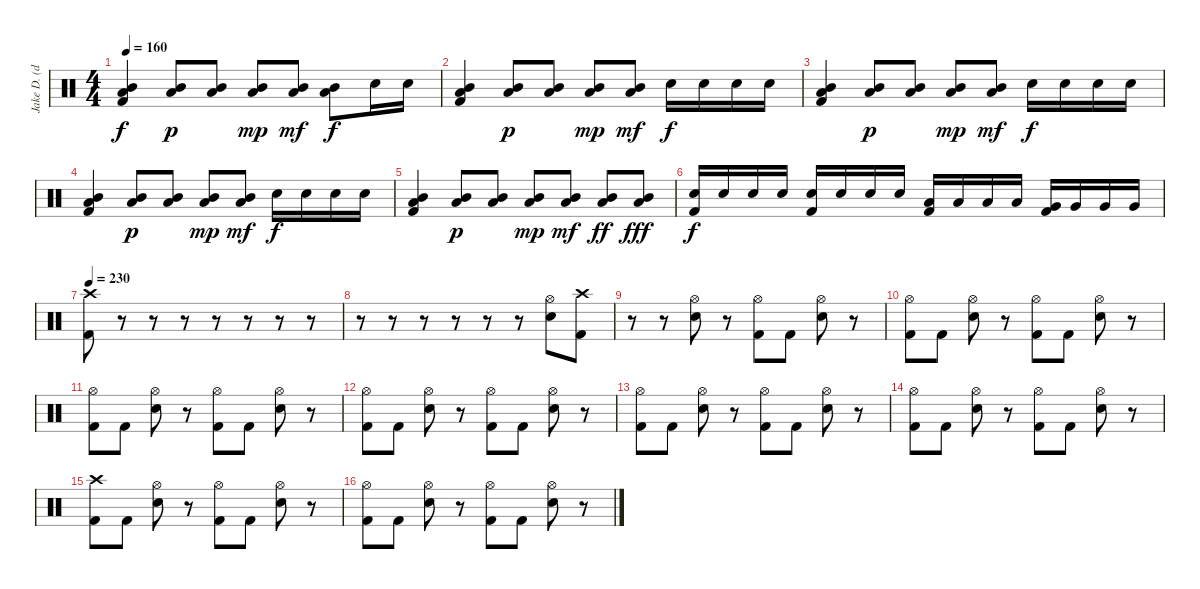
\track ("Jake D. (drums)" "Jake D. (d") {instrument percussion}
\staff {score}
\articulation defaults
\ts (4 4)
\tempo 160
\clef neutral
\ks c
("Mid Tom (hit)" "Low Tom (hit)" "Kick (hit) 2").4{dy f} ("Mid Tom (hit)" "Low Tom (hit)").8{dy p} ("Mid Tom (hit)" "Low Tom (hit)").8 ("Mid Tom (hit)" "Low Tom (hit)").8{dy mp} ("Mid Tom (hit)" "Low Tom (hit)").8{dy mf} ("Mid Tom (hit)" "Low Tom (hit)").8{dy f} "Electric Snare (hit)".16 "Electric Snare (hit)".16 |
("Mid Tom (hit)" "Low Tom (hit)" "Kick (hit) 2").4 ("Mid Tom (hit)" "Low Tom (hit)").8{dy p} ("Mid Tom (hit)" "Low Tom (hit)").8 ("Mid Tom (hit)" "Low Tom (hit)").8{dy mp} ("Mid Tom (hit)" "Low Tom (hit)").8{dy mf} "Electric Snare (hit)".16{dy f} "Electric Snare (hit)".16 "Electric Snare (hit)".16 "Electric Snare (hit)".16 |
("Mid Tom (hit)" "Low Tom (hit)" "Kick (hit) 2").4 ("Mid Tom (hit)" "Low Tom (hit)").8{dy p} ("Mid Tom (hit)" "Low Tom (hit)").8 ("Mid Tom (hit)" "Low Tom (hit)").8{dy mp} ("Mid Tom (hit)" "Low Tom (hit)").8{dy mf} "Electric Snare (hit)".16{dy f} "Electric Snare (hit)".16 "Electric Snare (hit)".16 "Electric Snare (hit)".16 |
("Mid Tom (hit)" "Low Tom (hit)" "Kick (hit) 2").4 ("Mid Tom (hit)" "Low Tom (hit)").8{dy p} ("Mid Tom (hit)" "Low Tom (hit)").8 ("Mid Tom (hit)" "Low Tom (hit)").8{dy mp} ("Mid Tom (hit)" "Low Tom (hit)").8{dy mf} "Electric Snare (hit)".16{dy f} "Electric Snare (hit)".16 "Electric Snare (hit)".16 "Electric Snare (hit)".16 |
("Mid Tom (hit)" "Low Tom (hit)" "Kick (hit) 2").4 ("Mid Tom (hit)" "Low Tom (hit)").8{dy p} ("Mid Tom (hit)" "Low Tom (hit)").8 ("Mid Tom (hit)" "Low Tom (hit)").8{dy mp} ("Mid Tom (hit)" "Low Tom (hit)").8{dy mf} ("Mid Tom (hit)" "Low Tom (hit)").8{dy ff} ("Mid Tom (hit)" "Low Tom (hit)").8{dy fff} |
("Electric Snare (hit)" "Kick (hit) 2").16{dy f} "Electric Snare (hit)".16 "Electric Snare (hit)".16 "Electric Snare (hit)".16 ("Electric Snare (hit)" "Kick (hit) 2").16 "Electric Snare (hit)".16 "Electric Snare (hit)".16 "Electric Snare (hit)".16 ("Low Tom (hit)" "Kick (hit) 2").16 "Low Tom (hit)".16 "Low Tom (hit)".16 "Low Tom (hit)".16 ("Very Low Tom (hit)" "Kick (hit) 2").16 "Very Low Tom (hit)".16 "Very Low Tom (hit)".16 "Very Low Tom (hit)".16 |
\tempo 230
("Crash high (hit)" "Kick (hit) 2").8 r.8 r.8 r.8 r.8 r.8 r.8 r.8 |
r.8 r.8 r.8 r.8 r.8 r.8 ("Hi-Hat (open)" "Electric Snare (hit)").8 ("Crash high (hit)" "Kick (hit) 2").8 |
r.8 r.8 ("Hi-Hat (open)" "Electric Snare (hit)").8 r.8 ("Hi-Hat (open)" "Kick (hit) 2").8 "Kick (hit) 2".8 ("Hi-Hat (open)" "Electric Snare (hit)").8 r.8 |
("Hi-Hat (open)" "Kick (hit) 2").8 "Kick (hit) 2".8 ("Hi-Hat (open)" "Electric Snare (hit)").8 r.8 ("Hi-Hat (open)" "Kick (hit) 2").8 "Kick (hit) 2".8 ("Hi-Hat (open)" "Electric Snare (hit)").8 r.8 |
("Hi-Hat (open)" "Kick (hit) 2").8 "Kick (hit) 2".8 ("Hi-Hat (open)" "Electric Snare (hit)").8 r.8 ("Hi-Hat (open)" "Kick (hit) 2").8 "Kick (hit) 2".8 ("Hi-Hat (open)" "Electric Snare (hit)").8 r.8 |
("Hi-Hat (open)" "Kick (hit) 2").8 "Kick (hit) 2".8 ("Hi-Hat (open)" "Electric Snare (hit)").8 r.8 ("Hi-Hat (open)" "Kick (hit) 2").8 "Kick (hit) 2".8 ("Hi-Hat (open)" "Electric Snare (hit)").8 r.8 |
("Hi-Hat (open)" "Kick (hit) 2").8 "Kick (hit) 2".8 ("Hi-Hat (open)" "Electric Snare (hit)").8 r.8 ("Hi-Hat (open)" "Kick (hit) 2").8 "Kick (hit) 2".8 ("Hi-Hat (open)" "Electric Snare (hit)").8 r.8 |
("Hi-Hat (open)" "Kick (hit) 2").8 "Kick (hit) 2".8 ("Hi-Hat (open)" "Electric Snare (hit)").8 r.8 ("Hi-Hat (open)" "Kick (hit) 2").8 "Kick (hit) 2".8 ("Hi-Hat (open)" "Electric Snare (hit)").8 r.8 |
("Crash high (hit)" "Kick (hit) 2").8 "Kick (hit) 2".8 ("Hi-Hat (open)" "Electric Snare (hit)").8 r.8 ("Hi-Hat (open)" "Kick (hit) 2").8 "Kick (hit) 2".8 ("Hi-Hat (open)" "Electric Snare (hit)").8 r.8 |
("Hi-Hat (open)" "Kick (hit) 2").8 "Kick (hit) 2".8 ("Hi-Hat (open)" "Electric Snare (hit)").8 r.8 ("Hi-Hat (open)" "Kick (hit) 2").8 "Kick (hit) 2".8 ("Hi-Hat (open)" "Electric Snare (hit)").8 r.8
